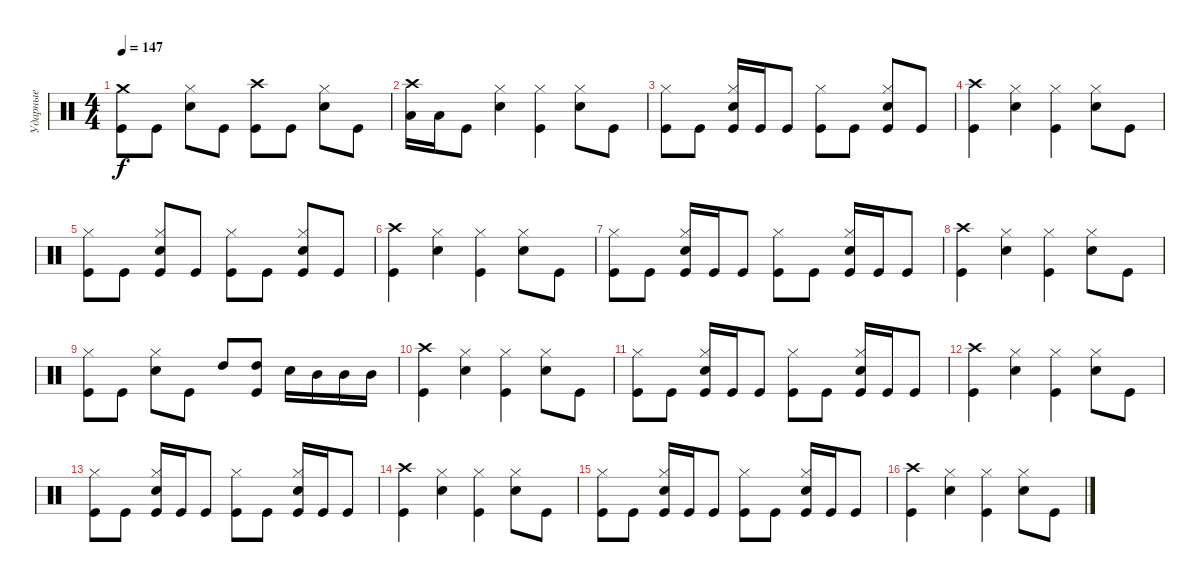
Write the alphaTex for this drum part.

\track ("Ударные" "Ударные") {instrument percussion}
\staff {score}
\articulation defaults
\ts (4 4)
\tempo 147
\clef neutral
\ks c
("Crash medium (hit)" "Kick (hit)").8{dy f} "Kick (hit)".8 ("Hi-Hat (closed)" "Electric Snare (hit)").8 "Kick (hit)".8 ("Crash high (hit)" "Kick (hit)").8 "Kick (hit)".8 ("Hi-Hat (closed)" "Electric Snare (hit)").8 "Kick (hit)".8 |
("Crash high (hit)" "Low Tom (hit)").16 "Low Tom (hit)".16 "Kick (hit)".8 ("Hi-Hat (closed)" "Electric Snare (hit)").4 ("Hi-Hat (closed)" "Kick (hit)").4 ("Hi-Hat (closed)" "Electric Snare (hit)").8 "Kick (hit)".8 |
("Hi-Hat (closed)" "Kick (hit)").8 "Kick (hit)".8 ("Hi-Hat (closed)" "Electric Snare (hit)" "Kick (hit)").16 "Kick (hit)".16 "Kick (hit)".8 ("Hi-Hat (closed)" "Kick (hit)").8 "Kick (hit)".8 ("Hi-Hat (closed)" "Electric Snare (hit)" "Kick (hit)").8 "Kick (hit)".8 |
("Crash high (hit)" "Kick (hit)").4 ("Hi-Hat (closed)" "Electric Snare (hit)").4 ("Hi-Hat (closed)" "Kick (hit)").4 ("Hi-Hat (closed)" "Electric Snare (hit)").8 "Kick (hit)".8 |
("Hi-Hat (closed)" "Kick (hit)").8 "Kick (hit)".8 ("Hi-Hat (closed)" "Electric Snare (hit)" "Kick (hit)").8 "Kick (hit)".8 ("Hi-Hat (closed)" "Kick (hit)").8 "Kick (hit)".8 ("Hi-Hat (closed)" "Electric Snare (hit)" "Kick (hit)").8 "Kick (hit)".8 |
("Crash high (hit)" "Kick (hit)").4 ("Hi-Hat (closed)" "Electric Snare (hit)").4 ("Hi-Hat (closed)" "Kick (hit)").4 ("Hi-Hat (closed)" "Electric Snare (hit)").8 "Kick (hit)".8 |
("Hi-Hat (closed)" "Kick (hit)").8 "Kick (hit)".8 ("Hi-Hat (closed)" "Electric Snare (hit)" "Kick (hit)").16 "Kick (hit)".16 "Kick (hit)".8 ("Hi-Hat (closed)" "Kick (hit)").8 "Kick (hit)".8 ("Hi-Hat (closed)" "Electric Snare (hit)" "Kick (hit)").16 "Kick (hit)".16 "Kick (hit)".8 |
("Crash high (hit)" "Kick (hit)").4 ("Hi-Hat (closed)" "Electric Snare (hit)").4 ("Hi-Hat (closed)" "Kick (hit)").4 ("Hi-Hat (closed)" "Electric Snare (hit)").8 "Kick (hit)".8 |
("Hi-Hat (closed)" "Kick (hit)").8 "Kick (hit)".8 ("Hi-Hat (closed)" "Electric Snare (hit)").8 "Kick (hit)".8 "High Tom (hit)".8 ("High Tom (hit)" "Kick (hit)").8 "Electric Snare (hit)".16 "Mid Tom (hit)".16 "Mid Tom (hit)".16 "Mid Tom (hit)".16 |
("Crash high (hit)" "Kick (hit)").4 ("Hi-Hat (closed)" "Electric Snare (hit)").4 ("Hi-Hat (closed)" "Kick (hit)").4 ("Hi-Hat (closed)" "Electric Snare (hit)").8 "Kick (hit)".8 |
("Hi-Hat (closed)" "Kick (hit)").8 "Kick (hit)".8 ("Hi-Hat (closed)" "Electric Snare (hit)" "Kick (hit)").16 "Kick (hit)".16 "Kick (hit)".8 ("Hi-Hat (closed)" "Kick (hit)").8 "Kick (hit)".8 ("Hi-Hat (closed)" "Electric Snare (hit)" "Kick (hit)").16 "Kick (hit)".16 "Kick (hit)".8 |
("Crash high (hit)" "Kick (hit)").4 ("Hi-Hat (closed)" "Electric Snare (hit)").4 ("Hi-Hat (closed)" "Kick (hit)").4 ("Hi-Hat (closed)" "Electric Snare (hit)").8 "Kick (hit)".8 |
("Hi-Hat (closed)" "Kick (hit)").8 "Kick (hit)".8 ("Hi-Hat (closed)" "Electric Snare (hit)" "Kick (hit)").16 "Kick (hit)".16 "Kick (hit)".8 ("Hi-Hat (closed)" "Kick (hit)").8 "Kick (hit)".8 ("Hi-Hat (closed)" "Electric Snare (hit)" "Kick (hit)").16 "Kick (hit)".16 "Kick (hit)".8 |
("Crash high (hit)" "Kick (hit)").4 ("Hi-Hat (closed)" "Electric Snare (hit)").4 ("Hi-Hat (closed)" "Kick (hit)").4 ("Hi-Hat (closed)" "Electric Snare (hit)").8 "Kick (hit)".8 |
("Hi-Hat (closed)" "Kick (hit)").8 "Kick (hit)".8 ("Hi-Hat (closed)" "Electric Snare (hit)" "Kick (hit)").16 "Kick (hit)".16 "Kick (hit)".8 ("Hi-Hat (closed)" "Kick (hit)").8 "Kick (hit)".8 ("Hi-Hat (closed)" "Electric Snare (hit)" "Kick (hit)").16 "Kick (hit)".16 "Kick (hit)".8 |
("Crash high (hit)" "Kick (hit)").4 ("Hi-Hat (closed)" "Electric Snare (hit)").4 ("Hi-Hat (closed)" "Kick (hit)").4 ("Hi-Hat (closed)" "Electric Snare (hit)").8 "Kick (hit)".8
